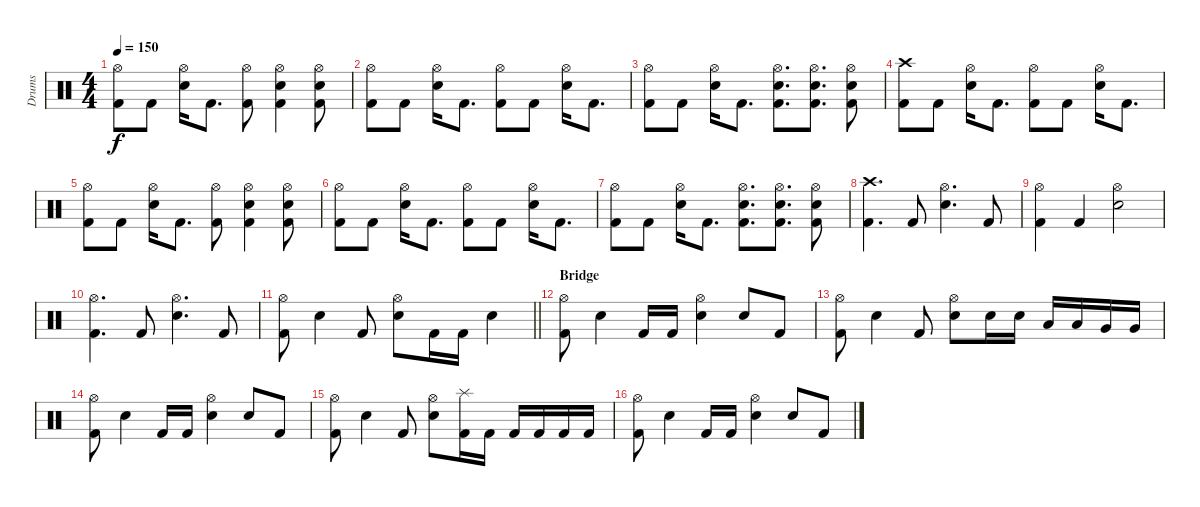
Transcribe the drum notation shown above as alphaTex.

\track ("Drums" "Drums") {instrument percussion}
\staff {score}
\articulation defaults
\ts (4 4)
\tempo 150
\clef neutral
\ks c
("Hi-Hat (open)" "Kick (hit) 2").8{dy f} "Kick (hit) 2".8 ("Hi-Hat (open)" "Snare (hit) 2").16 "Kick (hit) 2".8{d} ("Hi-Hat (open)" "Kick (hit) 2").8 ("Hi-Hat (open)" "Snare (hit) 2" "Kick (hit) 2").4 ("Hi-Hat (open)" "Snare (hit) 2" "Kick (hit) 2").8 |
("Hi-Hat (open)" "Kick (hit) 2").8 "Kick (hit) 2".8 ("Hi-Hat (open)" "Snare (hit) 2").16 "Kick (hit) 2".8{d} ("Hi-Hat (open)" "Kick (hit) 2").8 "Kick (hit) 2".8 ("Hi-Hat (open)" "Snare (hit) 2").16 "Kick (hit) 2".8{d} |
("Hi-Hat (open)" "Kick (hit) 2").8 "Kick (hit) 2".8 ("Hi-Hat (open)" "Snare (hit) 2").16 "Kick (hit) 2".8{d} ("Hi-Hat (open)" "Snare (hit) 2" "Kick (hit) 2").8{d} ("Hi-Hat (open)" "Snare (hit) 2" "Kick (hit) 2").8{d} ("Hi-Hat (open)" "Snare (hit) 2" "Kick (hit) 2").8 |
("Crash high (hit)" "Kick (hit) 2").8 "Kick (hit) 2".8 ("Hi-Hat (open)" "Snare (hit) 2").16 "Kick (hit) 2".8{d} ("Hi-Hat (open)" "Kick (hit) 2").8 "Kick (hit) 2".8 ("Hi-Hat (open)" "Snare (hit) 2").16 "Kick (hit) 2".8{d} |
("Hi-Hat (open)" "Kick (hit) 2").8 "Kick (hit) 2".8 ("Hi-Hat (open)" "Snare (hit) 2").16 "Kick (hit) 2".8{d} ("Hi-Hat (open)" "Kick (hit) 2").8 ("Hi-Hat (open)" "Snare (hit) 2" "Kick (hit) 2").4 ("Hi-Hat (open)" "Snare (hit) 2" "Kick (hit) 2").8 |
("Hi-Hat (open)" "Kick (hit) 2").8 "Kick (hit) 2".8 ("Hi-Hat (open)" "Snare (hit) 2").16 "Kick (hit) 2".8{d} ("Hi-Hat (open)" "Kick (hit) 2").8 "Kick (hit) 2".8 ("Hi-Hat (open)" "Snare (hit) 2").16 "Kick (hit) 2".8{d} |
("Hi-Hat (open)" "Kick (hit) 2").8 "Kick (hit) 2".8 ("Hi-Hat (open)" "Snare (hit) 2").16 "Kick (hit) 2".8{d} ("Hi-Hat (open)" "Snare (hit) 2" "Kick (hit) 2").8{d} ("Hi-Hat (open)" "Snare (hit) 2" "Kick (hit) 2").8{d} ("Hi-Hat (open)" "Snare (hit) 2" "Kick (hit) 2").8 |
("Crash high (hit)" "Kick (hit) 2").4{d} "Kick (hit) 2".8 ("Hi-Hat (open)" "Snare (hit) 2").4{d} "Kick (hit) 2".8 |
("Hi-Hat (open)" "Kick (hit) 2").4 "Kick (hit) 2".4 ("Hi-Hat (open)" "Snare (hit) 2").2 |
("Hi-Hat (open)" "Kick (hit) 2").4{d} "Kick (hit) 2".8 ("Hi-Hat (open)" "Snare (hit) 2").4{d} "Kick (hit) 2".8 |
\barLineRight lightlight
("Hi-Hat (open)" "Kick (hit) 2").8 "Snare (hit) 2".4 "Kick (hit) 2".8 ("Hi-Hat (open)" "Snare (hit) 2").8 "Kick (hit) 2".16 "Kick (hit) 2".16 "Snare (hit) 2".4 |
\section ("" "Bridge")
("Hi-Hat (open)" "Kick (hit) 2").8 "Snare (hit) 2".4 "Kick (hit) 2".16 "Kick (hit) 2".16 ("Hi-Hat (open)" "Snare (hit) 2").4 "Snare (hit) 2".8 "Kick (hit) 2".8 |
("Hi-Hat (open)" "Kick (hit) 2").8 "Snare (hit) 2".4 "Kick (hit) 2".8 ("Hi-Hat (open)" "Snare (hit) 2").8 "Electric Snare (hit)".16 "Snare (hit) 2".16 "Low Tom (hit)".16 "Low Tom (hit)".16 "Very Low Tom (hit)".16 "Very Low Tom (hit)".16 |
("Hi-Hat (open)" "Kick (hit) 2").8 "Snare (hit) 2".4 "Kick (hit) 2".16 "Kick (hit) 2".16 ("Hi-Hat (open)" "Snare (hit) 2").4 "Snare (hit) 2".8 "Kick (hit) 2".8 |
("Hi-Hat (open)" "Kick (hit) 2").8 "Snare (hit) 2".4 "Kick (hit) 2".8 ("Hi-Hat (open)" "Snare (hit) 2").8 ("Splash (hit)" "Kick (hit) 2").16 "Kick (hit) 2".16 "Kick (hit) 2".16 "Kick (hit) 2".16 "Kick (hit) 2".16 "Kick (hit) 2".16 |
("Hi-Hat (open)" "Kick (hit) 2").8 "Snare (hit) 2".4 "Kick (hit) 2".16 "Kick (hit) 2".16 ("Hi-Hat (open)" "Snare (hit) 2").4 "Snare (hit) 2".8 "Kick (hit) 2".8
